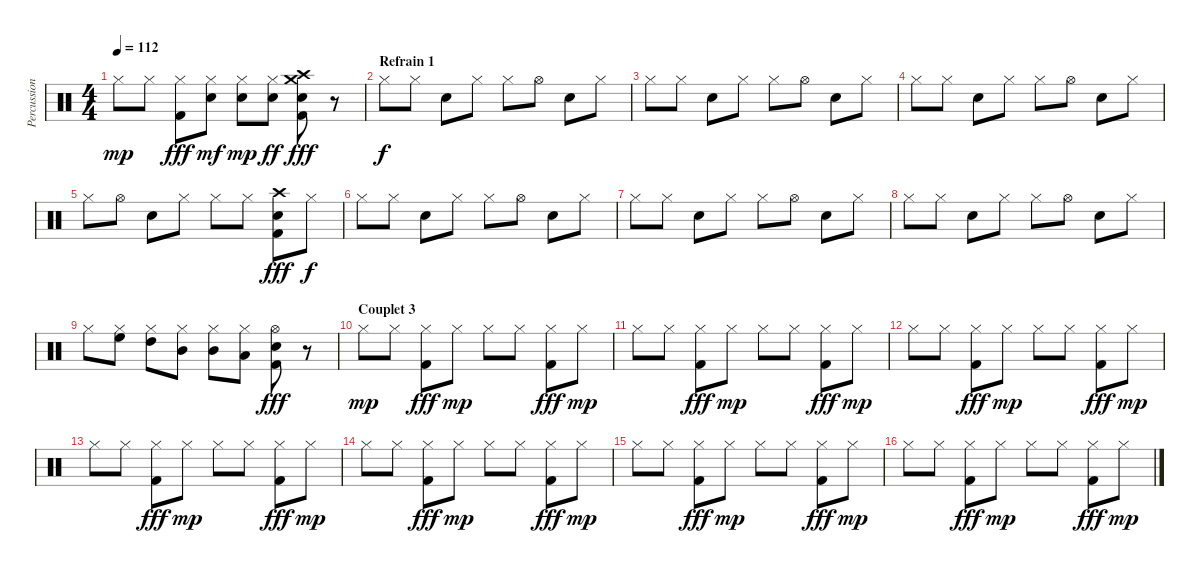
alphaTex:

\track ("Percussions" "Percussion") {instrument percussion}
\staff {score}
\articulation defaults
\ts (4 4)
\tempo 112
\clef neutral
\ks c "Hi-Hat (closed)".8{dy mp} "Hi-Hat (closed)".8
("Hi-Hat (closed)" "Kick (hit) 2").8{dy fff} ("Hi-Hat (closed)" "Electric Snare (hit)").8{dy mf} ("Hi-Hat (closed)" "Electric Snare (hit)").8{dy mp} ("Hi-Hat (closed)" "Electric Snare (hit)").8{dy ff} ("Crash high (hit)" "Crash medium (hit)" "Electric Snare (hit)" "Kick (hit) 2").8{dy fff} r.8 |
\section ("" "Refrain 1")
"Hi-Hat (closed)".8{dy f} "Hi-Hat (closed)".8 "Electric Snare (hit)".8 "Hi-Hat (closed)".8 "Hi-Hat (closed)".8 "Hi-Hat (open)".8 "Electric Snare (hit)".8 "Hi-Hat (closed)".8 |
"Hi-Hat (closed)".8 "Hi-Hat (closed)".8 "Electric Snare (hit)".8 "Hi-Hat (closed)".8 "Hi-Hat (closed)".8 "Hi-Hat (open)".8 "Electric Snare (hit)".8 "Hi-Hat (closed)".8 |
"Hi-Hat (closed)".8 "Hi-Hat (closed)".8 "Electric Snare (hit)".8 "Hi-Hat (closed)".8 "Hi-Hat (closed)".8 "Hi-Hat (open)".8 "Electric Snare (hit)".8 "Hi-Hat (closed)".8 |
"Hi-Hat (closed)".8 "Hi-Hat (open)".8 "Electric Snare (hit)".8 "Hi-Hat (closed)".8 "Hi-Hat (closed)".8 "Hi-Hat (closed)".8 ("Crash high (hit)" "Electric Snare (hit)" "Kick (hit) 2").8{dy fff} "Hi-Hat (closed)".8{dy f} |
"Hi-Hat (closed)".8 "Hi-Hat (closed)".8 "Electric Snare (hit)".8 "Hi-Hat (closed)".8 "Hi-Hat (closed)".8 "Hi-Hat (open)".8 "Electric Snare (hit)".8 "Hi-Hat (closed)".8 |
"Hi-Hat (closed)".8 "Hi-Hat (closed)".8 "Electric Snare (hit)".8 "Hi-Hat (closed)".8 "Hi-Hat (closed)".8 "Hi-Hat (open)".8 "Electric Snare (hit)".8 "Hi-Hat (closed)".8 |
"Hi-Hat (closed)".8 "Hi-Hat (closed)".8 "Electric Snare (hit)".8 "Hi-Hat (closed)".8 "Hi-Hat (closed)".8 "Hi-Hat (open)".8 "Electric Snare (hit)".8 "Hi-Hat (closed)".8 |
"Hi-Hat (closed)".8 ("Hi-Hat (closed)" "High Floor Tom (hit)").8 ("Hi-Hat (closed)" "High Tom (hit)").8 ("Hi-Hat (closed)" "Mid Tom (hit)").8 ("Hi-Hat (closed)" "Mid Tom (hit)").8 ("Hi-Hat (closed)" "Low Tom (hit)").8 ("Hi-Hat (open)" "Electric Snare (hit)" "Kick (hit) 2").8{dy fff} r.8 |
\section ("" "Couplet 3")
"Hi-Hat (closed)".8{dy mp} "Hi-Hat (closed)".8 ("Hi-Hat (closed)" "Kick (hit) 2").8{dy fff} "Hi-Hat (closed)".8{dy mp} "Hi-Hat (closed)".8 "Hi-Hat (closed)".8 ("Hi-Hat (closed)" "Kick (hit) 2").8{dy fff} "Hi-Hat (closed)".8{dy mp} |
"Hi-Hat (closed)".8 "Hi-Hat (closed)".8 ("Hi-Hat (closed)" "Kick (hit) 2").8{dy fff} "Hi-Hat (closed)".8{dy mp} "Hi-Hat (closed)".8 "Hi-Hat (closed)".8 ("Hi-Hat (closed)" "Kick (hit) 2").8{dy fff} "Hi-Hat (closed)".8{dy mp} |
"Hi-Hat (closed)".8 "Hi-Hat (closed)".8 ("Hi-Hat (closed)" "Kick (hit) 2").8{dy fff} "Hi-Hat (closed)".8{dy mp} "Hi-Hat (closed)".8 "Hi-Hat (closed)".8 ("Hi-Hat (closed)" "Kick (hit) 2").8{dy fff} "Hi-Hat (closed)".8{dy mp} |
"Hi-Hat (closed)".8 "Hi-Hat (closed)".8 ("Hi-Hat (closed)" "Kick (hit) 2").8{dy fff} "Hi-Hat (closed)".8{dy mp} "Hi-Hat (closed)".8 "Hi-Hat (closed)".8 ("Hi-Hat (closed)" "Kick (hit) 2").8{dy fff} "Hi-Hat (closed)".8{dy mp} |
"Hi-Hat (closed)".8 "Hi-Hat (closed)".8 ("Hi-Hat (closed)" "Kick (hit) 2").8{dy fff} "Hi-Hat (closed)".8{dy mp} "Hi-Hat (closed)".8 "Hi-Hat (closed)".8 ("Hi-Hat (closed)" "Kick (hit) 2").8{dy fff} "Hi-Hat (closed)".8{dy mp} |
"Hi-Hat (closed)".8 "Hi-Hat (closed)".8 ("Hi-Hat (closed)" "Kick (hit) 2").8{dy fff} "Hi-Hat (closed)".8{dy mp} "Hi-Hat (closed)".8 "Hi-Hat (closed)".8 ("Hi-Hat (closed)" "Kick (hit) 2").8{dy fff} "Hi-Hat (closed)".8{dy mp} |
"Hi-Hat (closed)".8 "Hi-Hat (closed)".8 ("Hi-Hat (closed)" "Kick (hit) 2").8{dy fff} "Hi-Hat (closed)".8{dy mp} "Hi-Hat (closed)".8 "Hi-Hat (closed)".8 ("Hi-Hat (closed)" "Kick (hit) 2").8{dy fff} "Hi-Hat (closed)".8{dy mp}
